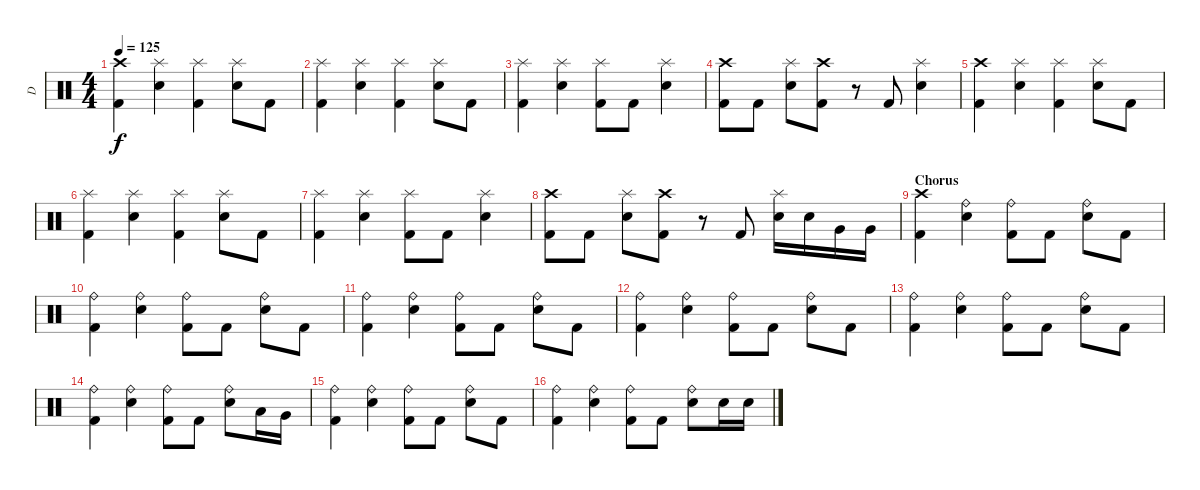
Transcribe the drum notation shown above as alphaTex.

\track ("D" "D") {instrument percussion}
\staff {score}
\articulation defaults
\ts (4 4)
\tempo 125
\clef neutral
\ks c
("Crash high (hit)" "Kick (hit) 2").4{dy f} ("Splash (hit)" "Electric Snare (hit)").4 ("Splash (hit)" "Kick (hit) 2").4 ("Splash (hit)" "Electric Snare (hit)").8 "Kick (hit) 2".8 |
("Splash (hit)" "Kick (hit) 2").4 ("Splash (hit)" "Electric Snare (hit)").4 ("Splash (hit)" "Kick (hit) 2").4 ("Splash (hit)" "Electric Snare (hit)").8 "Kick (hit) 2".8 |
("Splash (hit)" "Kick (hit) 2").4 ("Splash (hit)" "Electric Snare (hit)").4 ("Splash (hit)" "Kick (hit) 2").8 "Kick (hit) 2".8 ("Splash (hit)" "Electric Snare (hit)").4 |
("Crash high (hit)" "Kick (hit) 2").8 "Kick (hit) 2".8 ("Splash (hit)" "Electric Snare (hit)").8 ("Crash high (hit)" "Kick (hit) 2").8 r.8 "Kick (hit) 2".8 ("Splash (hit)" "Electric Snare (hit)").4 |
("Crash high (hit)" "Kick (hit) 2").4 ("Splash (hit)" "Electric Snare (hit)").4 ("Splash (hit)" "Kick (hit) 2").4 ("Splash (hit)" "Electric Snare (hit)").8 "Kick (hit) 2".8 |
("Splash (hit)" "Kick (hit) 2").4 ("Splash (hit)" "Electric Snare (hit)").4 ("Splash (hit)" "Kick (hit) 2").4 ("Splash (hit)" "Electric Snare (hit)").8 "Kick (hit) 2".8 |
("Splash (hit)" "Kick (hit) 2").4 ("Splash (hit)" "Electric Snare (hit)").4 ("Splash (hit)" "Kick (hit) 2").8 "Kick (hit) 2".8 ("Splash (hit)" "Electric Snare (hit)").4 |
("Crash high (hit)" "Kick (hit) 2").8 "Kick (hit) 2".8 ("Splash (hit)" "Electric Snare (hit)").8 ("Crash high (hit)" "Kick (hit) 2").8 r.8 "Kick (hit) 2".8 ("Splash (hit)" "Electric Snare (hit)").16 "Electric Snare (hit)".16 "Very Low Tom (hit)".16 "Very Low Tom (hit)".16 |
\section ("" "Chorus")
("Crash high (hit)" "Kick (hit) 2").4 ("Ride (bell)" "Electric Snare (hit)").4 ("Ride (bell)" "Kick (hit) 2").8 "Kick (hit) 2".8 ("Ride (bell)" "Electric Snare (hit)").8 "Kick (hit) 2".8 |
("Ride (bell)" "Kick (hit) 2").4 ("Ride (bell)" "Electric Snare (hit)").4 ("Ride (bell)" "Kick (hit) 2").8 "Kick (hit) 2".8 ("Ride (bell)" "Electric Snare (hit)").8 "Kick (hit) 2".8 |
("Ride (bell)" "Kick (hit) 2").4 ("Ride (bell)" "Electric Snare (hit)").4 ("Ride (bell)" "Kick (hit) 2").8 "Kick (hit) 2".8 ("Ride (bell)" "Electric Snare (hit)").8 "Kick (hit) 2".8 |
("Ride (bell)" "Kick (hit) 2").4 ("Ride (bell)" "Electric Snare (hit)").4 ("Ride (bell)" "Kick (hit) 2").8 "Kick (hit) 2".8 ("Ride (bell)" "Electric Snare (hit)").8 "Kick (hit) 2".8 |
("Ride (bell)" "Kick (hit) 2").4 ("Ride (bell)" "Electric Snare (hit)").4 ("Ride (bell)" "Kick (hit) 2").8 "Kick (hit) 2".8 ("Ride (bell)" "Electric Snare (hit)").8 "Kick (hit) 2".8 |
("Ride (bell)" "Kick (hit) 2").4 ("Ride (bell)" "Electric Snare (hit)").4 ("Ride (bell)" "Kick (hit) 2").8 "Kick (hit) 2".8 ("Ride (bell)" "Electric Snare (hit)").8 "Low Tom (hit)".16 "Very Low Tom (hit)".16 |
("Ride (bell)" "Kick (hit) 2").4 ("Ride (bell)" "Electric Snare (hit)").4 ("Ride (bell)" "Kick (hit) 2").8 "Kick (hit) 2".8 ("Ride (bell)" "Electric Snare (hit)").8 "Kick (hit) 2".8 |
("Ride (bell)" "Kick (hit) 2").4 ("Ride (bell)" "Electric Snare (hit)").4 ("Ride (bell)" "Kick (hit) 2").8 "Kick (hit) 2".8 ("Ride (bell)" "Electric Snare (hit)").8 "Electric Snare (hit)".16 "Electric Snare (hit)".16
